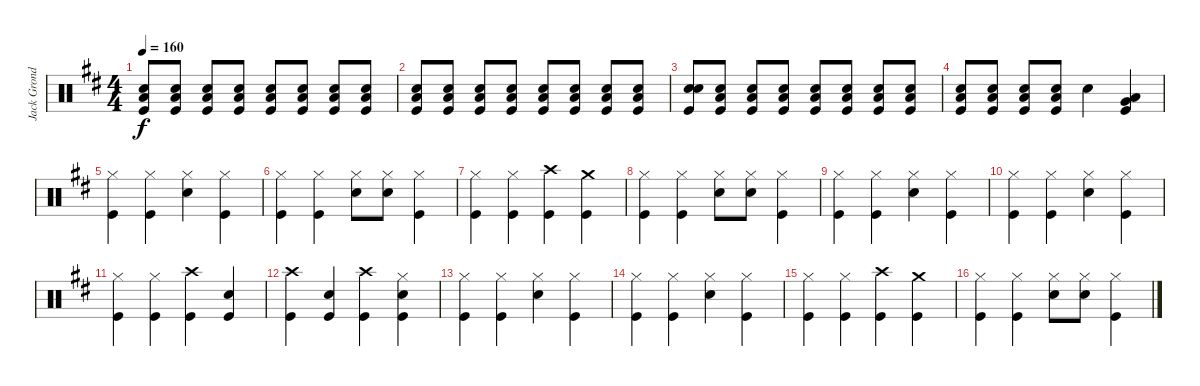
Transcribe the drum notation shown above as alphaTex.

\track ("Jack Grondin Drums" "Jack Grond") {instrument percussion}
\staff {score}
\articulation defaults
\ts (4 4)
\tempo 160
\clef neutral
\ks d
("Snare (hit) 2" "Low Floor Tom (hit)" "Kick (hit)").8{dy f volume 12} ("Snare (hit) 2" "Low Floor Tom (hit)" "Kick (hit)").8 ("Snare (hit) 2" "Low Floor Tom (hit)" "Kick (hit)").8 ("Snare (hit) 2" "Low Floor Tom (hit)" "Kick (hit)").8 ("Snare (hit) 2" "Low Floor Tom (hit)" "Kick (hit)").8 ("Snare (hit) 2" "Low Floor Tom (hit)" "Kick (hit)").8 ("Snare (hit) 2" "Low Floor Tom (hit)" "Kick (hit)").8 ("Snare (hit) 2" "Low Floor Tom (hit)" "Kick (hit)").8 |
("Snare (hit) 2" "Low Floor Tom (hit)" "Kick (hit)").8 ("Snare (hit) 2" "Low Floor Tom (hit)" "Kick (hit)").8 ("Snare (hit) 2" "Low Floor Tom (hit)" "Kick (hit)").8 ("Snare (hit) 2" "Low Floor Tom (hit)" "Kick (hit)").8 ("Snare (hit) 2" "Low Floor Tom (hit)" "Kick (hit)").8 ("Snare (hit) 2" "Low Floor Tom (hit)" "Kick (hit)").8 ("Snare (hit) 2" "Low Floor Tom (hit)" "Kick (hit)").8 ("Snare (hit) 2" "Low Floor Tom (hit)" "Kick (hit)").8 |
("Snare (hit) 2" "Snare (hit)" "Kick (hit)").8 ("Snare (hit) 2" "Low Floor Tom (hit)" "Kick (hit)").8 ("Snare (hit) 2" "Low Floor Tom (hit)" "Kick (hit)").8 ("Snare (hit) 2" "Low Floor Tom (hit)" "Kick (hit)").8 ("Snare (hit) 2" "Low Floor Tom (hit)" "Kick (hit)").8 ("Snare (hit) 2" "Low Floor Tom (hit)" "Kick (hit)").8 ("Snare (hit) 2" "Low Floor Tom (hit)" "Kick (hit)").8 ("Snare (hit) 2" "Low Floor Tom (hit)" "Kick (hit)").8 |
("Snare (hit) 2" "Low Floor Tom (hit)" "Kick (hit)").8 ("Snare (hit) 2" "Low Floor Tom (hit)" "Kick (hit)").8 ("Snare (hit) 2" "Low Floor Tom (hit)" "Kick (hit)").8 ("Snare (hit) 2" "Low Floor Tom (hit)" "Kick (hit)").8 "Snare (hit) 2".4 ("Very Low Tom (hit)" "Low Floor Tom (hit)" "Kick (hit)").4 |
("Hi-Hat (closed)" "Kick (hit)").4 ("Hi-Hat (closed)" "Kick (hit)").4 ("Hi-Hat (closed)" "Snare (hit) 2").4 ("Hi-Hat (closed)" "Kick (hit)").4 |
("Hi-Hat (closed)" "Kick (hit)").4 ("Hi-Hat (closed)" "Kick (hit)").4 ("Hi-Hat (closed)" "Snare (hit) 2").8 ("Hi-Hat (closed)" "Snare (hit) 2").8 ("Hi-Hat (closed)" "Kick (hit)").4 |
("Hi-Hat (closed)" "Kick (hit)").4 ("Hi-Hat (closed)" "Kick (hit)").4 ("Crash high (hit)" "Kick (hit)").4 ("Crash medium (hit)" "Kick (hit)").4 |
("Hi-Hat (closed)" "Kick (hit)").4 ("Hi-Hat (closed)" "Kick (hit)").4 ("Hi-Hat (closed)" "Snare (hit) 2").8 ("Hi-Hat (closed)" "Snare (hit) 2").8 ("Hi-Hat (closed)" "Kick (hit)").4 |
("Hi-Hat (closed)" "Kick (hit)").4 ("Hi-Hat (closed)" "Kick (hit)").4 ("Hi-Hat (closed)" "Snare (hit) 2").4 ("Hi-Hat (closed)" "Kick (hit)").4 |
("Hi-Hat (closed)" "Kick (hit)").4 ("Hi-Hat (closed)" "Kick (hit)").4 ("Hi-Hat (closed)" "Snare (hit) 2").4 ("Hi-Hat (closed)" "Kick (hit)").4 |
("Hi-Hat (closed)" "Kick (hit)").4 ("Hi-Hat (closed)" "Kick (hit)").4 ("Crash high (hit)" "Kick (hit)").4 ("Snare (hit) 2" "Kick (hit)").4 |
("Crash high (hit)" "Kick (hit)").4 ("Snare (hit) 2" "Kick (hit)").4 ("Crash high (hit)" "Kick (hit)").4 ("Hi-Hat (closed)" "Snare (hit) 2" "Kick (hit)").4 |
("Hi-Hat (closed)" "Kick (hit)").4 ("Hi-Hat (closed)" "Kick (hit)").4 ("Hi-Hat (closed)" "Snare (hit) 2").4 ("Hi-Hat (closed)" "Kick (hit)").4 |
("Hi-Hat (closed)" "Kick (hit)").4 ("Hi-Hat (closed)" "Kick (hit)").4 ("Hi-Hat (closed)" "Snare (hit) 2").4 ("Hi-Hat (closed)" "Kick (hit)").4 |
("Hi-Hat (closed)" "Kick (hit)").4 ("Hi-Hat (closed)" "Kick (hit)").4 ("Crash high (hit)" "Kick (hit)").4 ("Crash medium (hit)" "Kick (hit)").4 |
("Hi-Hat (closed)" "Kick (hit)").4 ("Hi-Hat (closed)" "Kick (hit)").4 ("Hi-Hat (closed)" "Snare (hit) 2").8 ("Hi-Hat (closed)" "Snare (hit) 2").8 ("Hi-Hat (closed)" "Kick (hit)").4
